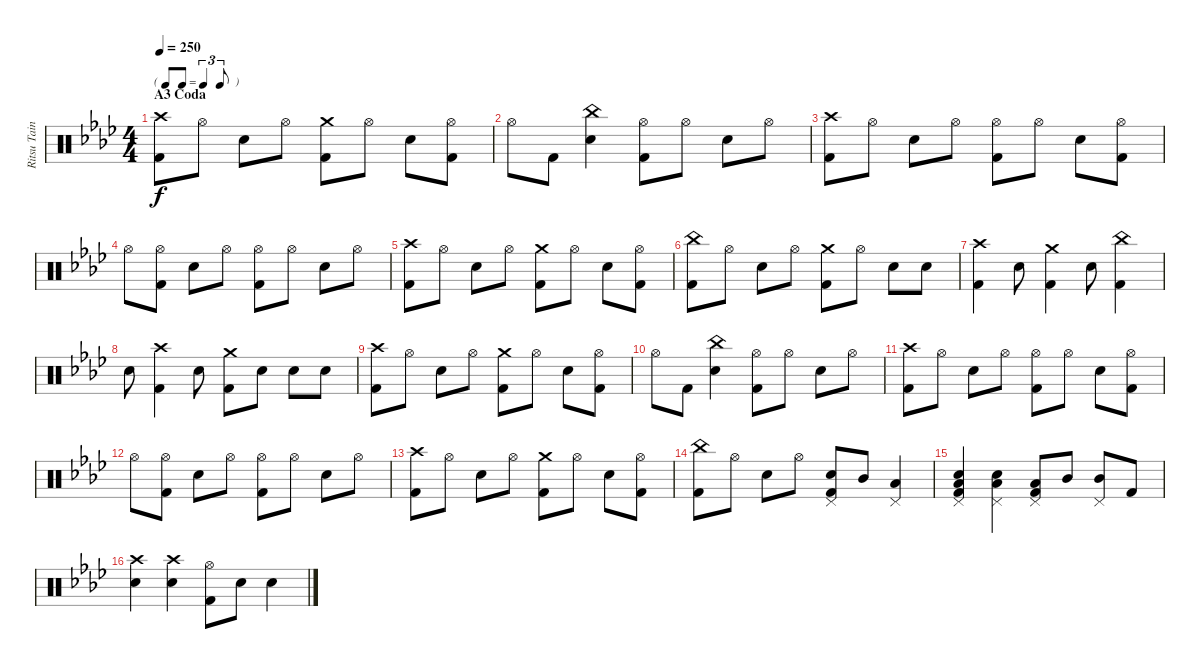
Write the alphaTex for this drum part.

\track ("Ritsu Tainaka" "Ritsu Tain") {instrument percussion}
\staff {score}
\articulation defaults
\ts (4 4)
\tf triplet8th
\section ("" "A3 Coda")
\tempo 250
\clef neutral
\ks ab
("Crash high (hit)" "Kick (hit) 2").8{dy f} "Hi-Hat (open)".8 "Electric Snare (hit)".8 "Hi-Hat (open)".8 ("Crash medium (hit)" "Kick (hit) 2").8 "Hi-Hat (open)".8 "Electric Snare (hit)".8 ("Hi-Hat (open)" "Kick (hit) 2").8 |
"Hi-Hat (open)".8 "Kick (hit) 2".8 ("China (hit)" "Electric Snare (hit)").4 ("Hi-Hat (open)" "Kick (hit) 2").8 "Hi-Hat (open)".8 "Electric Snare (hit)".8 "Hi-Hat (open)".8 |
("Crash high (hit)" "Kick (hit) 2").8 "Hi-Hat (open)".8 "Electric Snare (hit)".8 "Hi-Hat (open)".8 ("Hi-Hat (open)" "Kick (hit) 2").8 "Hi-Hat (open)".8 "Electric Snare (hit)".8 ("Hi-Hat (open)" "Kick (hit) 2").8 |
"Hi-Hat (open)".8 ("Hi-Hat (open)" "Kick (hit) 2").8 "Electric Snare (hit)".8 "Hi-Hat (open)".8 ("Hi-Hat (open)" "Kick (hit) 2").8 "Hi-Hat (open)".8 "Electric Snare (hit)".8 "Hi-Hat (open)".8 |
("Crash high (hit)" "Kick (hit) 2").8 "Hi-Hat (open)".8 "Electric Snare (hit)".8 "Hi-Hat (open)".8 ("Crash medium (hit)" "Kick (hit) 2").8 "Hi-Hat (open)".8 "Electric Snare (hit)".8 ("Hi-Hat (open)" "Kick (hit) 2").8 |
("China (hit)" "Kick (hit) 2").8 "Hi-Hat (open)".8 "Electric Snare (hit)".8 "Hi-Hat (open)".8 ("Crash medium (hit)" "Kick (hit) 2").8 "Hi-Hat (open)".8 "Electric Snare (hit)".8 "Electric Snare (hit)".8 |
("Crash high (hit)" "Kick (hit) 2").4 "Electric Snare (hit)".8 ("Crash medium (hit)" "Kick (hit) 2").4 "Electric Snare (hit)".8 ("China (hit)" "Kick (hit) 2").4 |
"Electric Snare (hit)".8 ("Crash high (hit)" "Kick (hit) 2").4 "Electric Snare (hit)".8 ("Crash medium (hit)" "Kick (hit) 2").8 "Electric Snare (hit)".8 "Electric Snare (hit)".8 "Electric Snare (hit)".8 |
("Crash high (hit)" "Kick (hit) 2").8 "Hi-Hat (open)".8 "Electric Snare (hit)".8 "Hi-Hat (open)".8 ("Crash medium (hit)" "Kick (hit) 2").8 "Hi-Hat (open)".8 "Electric Snare (hit)".8 ("Hi-Hat (open)" "Kick (hit) 2").8 |
"Hi-Hat (open)".8 "Kick (hit) 2".8 ("China (hit)" "Electric Snare (hit)").4 ("Hi-Hat (open)" "Kick (hit) 2").8 "Hi-Hat (open)".8 "Electric Snare (hit)".8 "Hi-Hat (open)".8 |
("Crash high (hit)" "Kick (hit) 2").8 "Hi-Hat (open)".8 "Electric Snare (hit)".8 "Hi-Hat (open)".8 ("Hi-Hat (open)" "Kick (hit) 2").8 "Hi-Hat (open)".8 "Electric Snare (hit)".8 ("Hi-Hat (open)" "Kick (hit) 2").8 |
"Hi-Hat (open)".8 ("Hi-Hat (open)" "Kick (hit) 2").8 "Electric Snare (hit)".8 "Hi-Hat (open)".8 ("Hi-Hat (open)" "Kick (hit) 2").8 "Hi-Hat (open)".8 "Electric Snare (hit)".8 "Hi-Hat (open)".8 |
("Crash high (hit)" "Kick (hit) 2").8 "Hi-Hat (open)".8 "Electric Snare (hit)".8 "Hi-Hat (open)".8 ("Crash medium (hit)" "Kick (hit) 2").8 "Hi-Hat (open)".8 "Electric Snare (hit)".8 ("Hi-Hat (open)" "Kick (hit) 2").8 |
("China (hit)" "Kick (hit) 2").8 "Hi-Hat (open)".8 "Electric Snare (hit)".8 "Hi-Hat (open)".8 ("Pedal Hi-Hat (hit)" "Electric Snare (hit)" "Kick (hit) 2").8 "Mid Tom (hit)".8 ("Pedal Hi-Hat (hit)" "Low Floor Tom (hit)").4 |
("Pedal Hi-Hat (hit)" "Electric Snare (hit)" "Low Floor Tom (hit)" "Kick (hit) 2").4 ("Pedal Hi-Hat (hit)" "Electric Snare (hit)" "Low Floor Tom (hit)").4 ("Pedal Hi-Hat (hit)" "Low Floor Tom (hit)" "Kick (hit) 2").8 "Mid Tom (hit)".8 ("Pedal Hi-Hat (hit)" "Mid Tom (hit)").8 "Kick (hit) 2".8 |
("Crash high (hit)" "Electric Snare (hit)").4 ("Crash high (hit)" "Electric Snare (hit)").4 ("Hi-Hat (open)" "Kick (hit) 2").8 "Electric Snare (hit)".8 "Electric Snare (hit)".4
